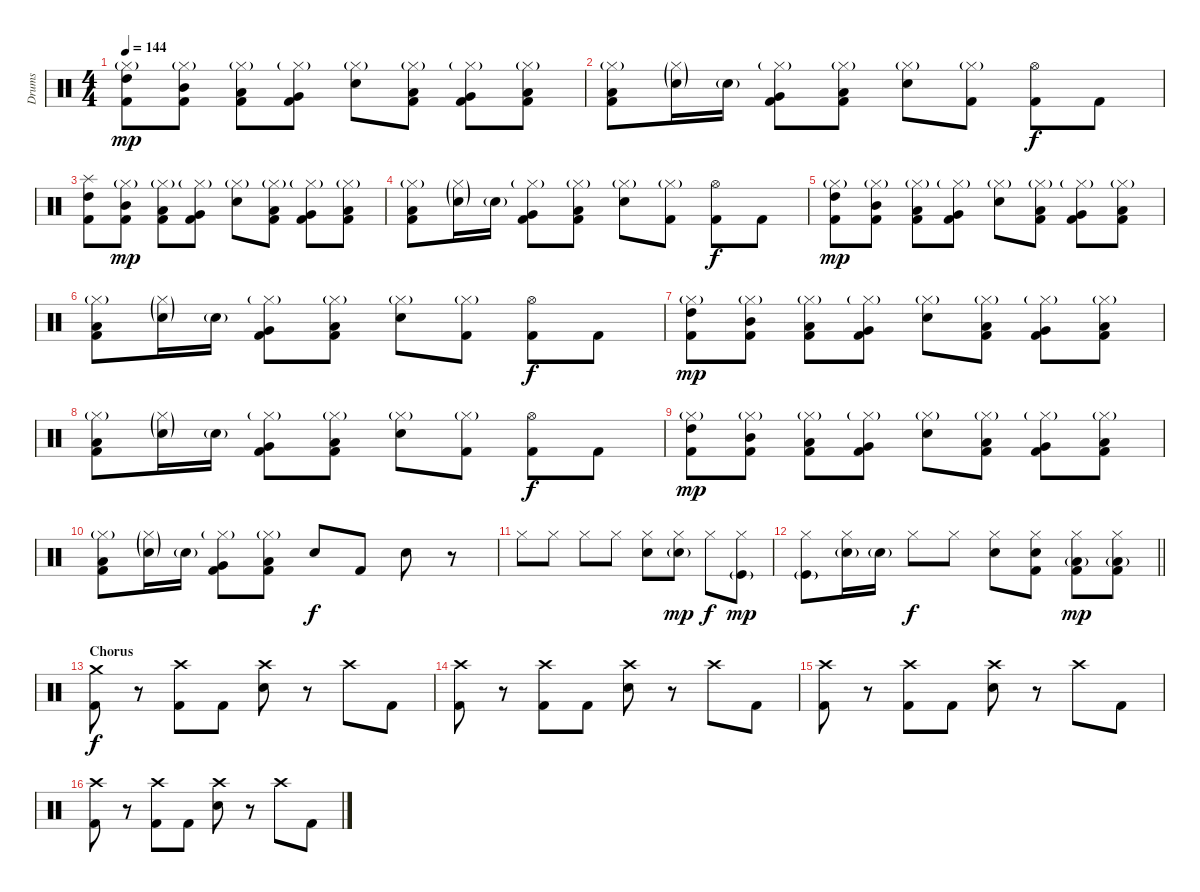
\track ("Drums" "Drums") {instrument percussion}
\staff {score}
\articulation defaults
\ts (4 4)
\tempo 144
\clef neutral
\ks c
("Hi-Hat (closed)"{g} "High Tom (hit)" "Kick (hit) 2").8{dy mp} ("Hi-Hat (closed)"{g} "Mid Tom (hit)" "Kick (hit) 2").8 ("Hi-Hat (closed)"{g} "Low Tom (hit)" "Kick (hit) 2").8 ("Hi-Hat (closed)"{g} "Very Low Tom (hit)" "Kick (hit) 2").8 ("Hi-Hat (closed)"{g} "Electric Snare (hit)").8 ("Hi-Hat (closed)"{g} "Low Tom (hit)" "Kick (hit) 2").8 ("Hi-Hat (closed)"{g} "Very Low Tom (hit)" "Kick (hit) 2").8 ("Hi-Hat (closed)"{g} "Low Floor Tom (hit)" "Kick (hit) 2").8 |
("Hi-Hat (closed)"{g} "Low Tom (hit)" "Kick (hit) 2").8 ("Hi-Hat (closed)"{g} "Electric Snare (hit)"{g}).16 "Electric Snare (hit)"{g}.16 ("Hi-Hat (closed)"{g} "Very Low Tom (hit)" "Kick (hit) 2").8 ("Hi-Hat (closed)"{g} "Low Floor Tom (hit)" "Kick (hit) 2").8 ("Hi-Hat (closed)"{g} "Electric Snare (hit)").8 ("Hi-Hat (closed)"{g} "Kick (hit) 2").8 ("Hi-Hat (open)" "Kick (hit) 2").8{dy f} "Kick (hit) 2".8 |
("Splash (hit)" "High Tom (hit)" "Kick (hit) 2").8 ("Hi-Hat (closed)"{g} "Mid Tom (hit)" "Kick (hit) 2").8{dy mp} ("Hi-Hat (closed)"{g} "Low Tom (hit)" "Kick (hit) 2").8 ("Hi-Hat (closed)"{g} "Very Low Tom (hit)" "Kick (hit) 2").8 ("Hi-Hat (closed)"{g} "Electric Snare (hit)").8 ("Hi-Hat (closed)"{g} "Low Tom (hit)" "Kick (hit) 2").8 ("Hi-Hat (closed)"{g} "Very Low Tom (hit)" "Kick (hit) 2").8 ("Hi-Hat (closed)"{g} "Low Floor Tom (hit)" "Kick (hit) 2").8 |
("Hi-Hat (closed)"{g} "Low Tom (hit)" "Kick (hit) 2").8 ("Hi-Hat (closed)"{g} "Electric Snare (hit)"{g}).16 "Electric Snare (hit)"{g}.16 ("Hi-Hat (closed)"{g} "Very Low Tom (hit)" "Kick (hit) 2").8 ("Hi-Hat (closed)"{g} "Low Floor Tom (hit)" "Kick (hit) 2").8 ("Hi-Hat (closed)"{g} "Electric Snare (hit)").8 ("Hi-Hat (closed)"{g} "Kick (hit) 2").8 ("Hi-Hat (open)" "Kick (hit) 2").8{dy f} "Kick (hit) 2".8 |
("Hi-Hat (closed)"{g} "High Tom (hit)" "Kick (hit) 2").8{dy mp} ("Hi-Hat (closed)"{g} "Mid Tom (hit)" "Kick (hit) 2").8 ("Hi-Hat (closed)"{g} "Low Tom (hit)" "Kick (hit) 2").8 ("Hi-Hat (closed)"{g} "Very Low Tom (hit)" "Kick (hit) 2").8 ("Hi-Hat (closed)"{g} "Electric Snare (hit)").8 ("Hi-Hat (closed)"{g} "Low Tom (hit)" "Kick (hit) 2").8 ("Hi-Hat (closed)"{g} "Very Low Tom (hit)" "Kick (hit) 2").8 ("Hi-Hat (closed)"{g} "Low Floor Tom (hit)" "Kick (hit) 2").8 |
("Hi-Hat (closed)"{g} "Low Tom (hit)" "Kick (hit) 2").8 ("Hi-Hat (closed)"{g} "Electric Snare (hit)"{g}).16 "Electric Snare (hit)"{g}.16 ("Hi-Hat (closed)"{g} "Very Low Tom (hit)" "Kick (hit) 2").8 ("Hi-Hat (closed)"{g} "Low Floor Tom (hit)" "Kick (hit) 2").8 ("Hi-Hat (closed)"{g} "Electric Snare (hit)").8 ("Hi-Hat (closed)"{g} "Kick (hit) 2").8 ("Hi-Hat (open)" "Kick (hit) 2").8{dy f} "Kick (hit) 2".8 |
("Hi-Hat (closed)"{g} "High Tom (hit)" "Kick (hit) 2").8{dy mp} ("Hi-Hat (closed)"{g} "Mid Tom (hit)" "Kick (hit) 2").8 ("Hi-Hat (closed)"{g} "Low Tom (hit)" "Kick (hit) 2").8 ("Hi-Hat (closed)"{g} "Very Low Tom (hit)" "Kick (hit) 2").8 ("Hi-Hat (closed)"{g} "Electric Snare (hit)").8 ("Hi-Hat (closed)"{g} "Low Tom (hit)" "Kick (hit) 2").8 ("Hi-Hat (closed)"{g} "Very Low Tom (hit)" "Kick (hit) 2").8 ("Hi-Hat (closed)"{g} "Low Floor Tom (hit)" "Kick (hit) 2").8 |
("Hi-Hat (closed)"{g} "Low Tom (hit)" "Kick (hit) 2").8 ("Hi-Hat (closed)"{g} "Electric Snare (hit)"{g}).16 "Electric Snare (hit)"{g}.16 ("Hi-Hat (closed)"{g} "Very Low Tom (hit)" "Kick (hit) 2").8 ("Hi-Hat (closed)"{g} "Low Floor Tom (hit)" "Kick (hit) 2").8 ("Hi-Hat (closed)"{g} "Electric Snare (hit)").8 ("Hi-Hat (closed)"{g} "Kick (hit) 2").8 ("Hi-Hat (open)" "Kick (hit) 2").8{dy f} "Kick (hit) 2".8 |
("Hi-Hat (closed)"{g} "High Tom (hit)" "Kick (hit) 2").8{dy mp} ("Hi-Hat (closed)"{g} "Mid Tom (hit)" "Kick (hit) 2").8 ("Hi-Hat (closed)"{g} "Low Tom (hit)" "Kick (hit) 2").8 ("Hi-Hat (closed)"{g} "Very Low Tom (hit)" "Kick (hit) 2").8 ("Hi-Hat (closed)"{g} "Electric Snare (hit)").8 ("Hi-Hat (closed)"{g} "Low Tom (hit)" "Kick (hit) 2").8 ("Hi-Hat (closed)"{g} "Very Low Tom (hit)" "Kick (hit) 2").8 ("Hi-Hat (closed)"{g} "Low Floor Tom (hit)" "Kick (hit) 2").8 |
("Hi-Hat (closed)"{g} "Low Tom (hit)" "Kick (hit) 2").8 ("Hi-Hat (closed)"{g} "Electric Snare (hit)"{g}).16 "Electric Snare (hit)"{g}.16 ("Hi-Hat (closed)"{g} "Very Low Tom (hit)" "Kick (hit) 2").8 ("Hi-Hat (closed)"{g} "Low Floor Tom (hit)" "Kick (hit) 2").8 "Electric Snare (hit)".8{dy f} "Kick (hit) 2".8 "Electric Snare (hit)".8 r.8{volume 6} |
"Hi-Hat (closed)".8{volume 15} "Hi-Hat (closed)".8 "Hi-Hat (closed)".8 "Hi-Hat (closed)".8 ("Hi-Hat (closed)" "Electric Snare (hit)").8 ("Hi-Hat (closed)" "Electric Snare (hit)"{g}).8{dy mp} "Hi-Hat (closed)".8{dy f} ("Hi-Hat (closed)" "Kick (hit)"{g}).8{dy mp} |
\barLineRight lightlight
("Hi-Hat (closed)" "Kick (hit)"{g}).8 ("Hi-Hat (closed)" "Electric Snare (hit)"{g}).16 "Electric Snare (hit)"{g}.16 "Hi-Hat (closed)".8{dy f} "Hi-Hat (closed)".8 ("Hi-Hat (closed)" "Electric Snare (hit)").8 ("Hi-Hat (closed)" "Electric Snare (hit)" "Kick (hit) 2").8 ("Hi-Hat (closed)" "Low Tom (hit)"{g} "Kick (hit) 2").8{dy mp} ("Hi-Hat (closed)" "Low Floor Tom (hit)"{g} "Kick (hit) 2").8 |
\section ("" "Chorus")
("Crash medium (hit)" "Kick (hit) 2").8{dy f} r.8 ("Crash high (hit)" "Kick (hit) 2").8 "Kick (hit) 2".8 ("Crash high (hit)" "Electric Snare (hit)").8 r.8 "Crash high (hit)".8 "Kick (hit) 2".8 |
("Crash high (hit)" "Kick (hit) 2").8 r.8 ("Crash high (hit)" "Kick (hit) 2").8 "Kick (hit) 2".8 ("Crash high (hit)" "Electric Snare (hit)").8 r.8 "Crash high (hit)".8 "Kick (hit) 2".8 |
("Crash high (hit)" "Kick (hit) 2").8 r.8 ("Crash high (hit)" "Kick (hit) 2").8 "Kick (hit) 2".8 ("Crash high (hit)" "Electric Snare (hit)").8 r.8 "Crash high (hit)".8 "Kick (hit) 2".8 |
("Crash high (hit)" "Kick (hit) 2").8 r.8 ("Crash high (hit)" "Kick (hit) 2").8 "Kick (hit) 2".8 ("Crash high (hit)" "Electric Snare (hit)").8 r.8 "Crash high (hit)".8 "Kick (hit) 2".8
